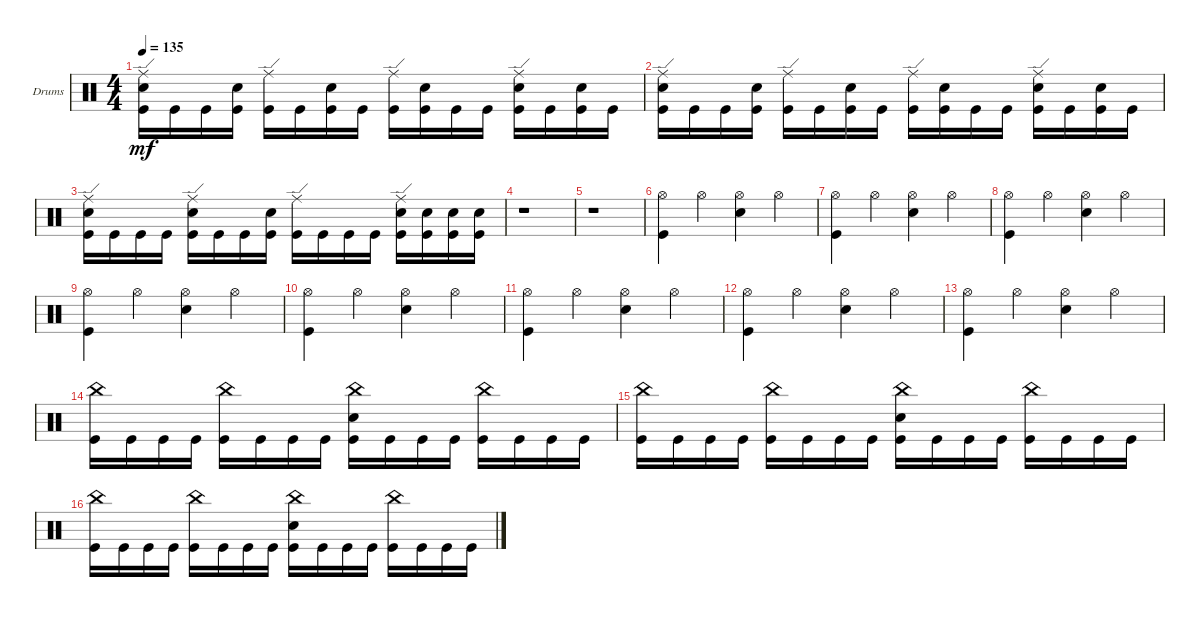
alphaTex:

\defaultSystemsLayout 4
\bracketExtendMode groupsimilarinstruments
\firstSystemTrackNameOrientation horizontal
\otherSystemsTrackNameOrientation horizontal
\track ("Rolo" "Drums") {instrument percussion}
\staff {score}
\articulation defaults
\ts (4 4)
\tempo 135
\clef neutral
\ks c
("Kick (hit)" "Snare (hit) 2" "Ride (edge)").16{dy mf} "Kick (hit)".16 "Kick (hit)".16 ("Kick (hit)" "Snare (hit) 2").16 ("Kick (hit)" "Ride (edge)").16 "Kick (hit)".16 ("Kick (hit)" "Snare (hit) 2").16 "Kick (hit)".16 ("Kick (hit)" "Ride (edge)").16 ("Kick (hit)" "Snare (hit) 2").16 "Kick (hit)".16 "Kick (hit)".16 ("Kick (hit)" "Snare (hit) 2" "Ride (edge)").16 "Kick (hit)".16 ("Kick (hit)" "Snare (hit) 2").16 "Kick (hit)".16 |
("Kick (hit)" "Snare (hit) 2" "Ride (edge)").16 "Kick (hit)".16 "Kick (hit)".16 ("Kick (hit)" "Snare (hit) 2").16 ("Kick (hit)" "Ride (edge)").16 "Kick (hit)".16 ("Kick (hit)" "Snare (hit) 2").16 "Kick (hit)".16 ("Kick (hit)" "Ride (edge)").16 ("Kick (hit)" "Snare (hit) 2").16 "Kick (hit)".16 "Kick (hit)".16 ("Kick (hit)" "Snare (hit) 2" "Ride (edge)").16 "Kick (hit)".16 ("Kick (hit)" "Snare (hit) 2").16 "Kick (hit)".16 |
("Kick (hit)" "Ride (edge)" "Snare (hit) 2").16 "Kick (hit)".16 "Kick (hit)".16 "Kick (hit)".16 ("Kick (hit)" "Ride (edge)" "Snare (hit) 2").16 "Kick (hit)".16 "Kick (hit)".16 ("Kick (hit)" "Snare (hit) 2").16 ("Kick (hit)" "Ride (edge)").16 "Kick (hit)".16 "Kick (hit)".16 "Kick (hit)".16 ("Kick (hit)" "Ride (edge)" "Snare (hit) 2").16 ("Kick (hit)" "Snare (hit) 2").16 ("Kick (hit)" "Snare (hit) 2").16 ("Kick (hit)" "Snare (hit) 2").16 |
r.1 |
r.1 |
("Kick (hit)" "Hi-Hat (open)").4 "Hi-Hat (open)".4 ("Hi-Hat (open)" "Snare (hit) 2").4 "Hi-Hat (open)".4 |
("Kick (hit)" "Hi-Hat (open)").4 "Hi-Hat (open)".4 ("Hi-Hat (open)" "Snare (hit) 2").4 "Hi-Hat (open)".4 |
("Kick (hit)" "Hi-Hat (open)").4 "Hi-Hat (open)".4 ("Hi-Hat (open)" "Snare (hit) 2").4 "Hi-Hat (open)".4 |
("Kick (hit)" "Hi-Hat (open)").4 "Hi-Hat (open)".4 ("Hi-Hat (open)" "Snare (hit) 2").4 "Hi-Hat (open)".4 |
("Kick (hit)" "Hi-Hat (open)").4 "Hi-Hat (open)".4 ("Hi-Hat (open)" "Snare (hit) 2").4 "Hi-Hat (open)".4 |
("Kick (hit)" "Hi-Hat (open)").4 "Hi-Hat (open)".4 ("Hi-Hat (open)" "Snare (hit) 2").4 "Hi-Hat (open)".4 |
("Kick (hit)" "Hi-Hat (open)").4 "Hi-Hat (open)".4 ("Hi-Hat (open)" "Snare (hit) 2").4 "Hi-Hat (open)".4 |
("Kick (hit)" "Hi-Hat (open)").4 "Hi-Hat (open)".4 ("Hi-Hat (open)" "Snare (hit) 2").4 "Hi-Hat (open)".4 |
("Kick (hit)" "China (hit)").16 "Kick (hit)".16 "Kick (hit)".16 "Kick (hit)".16 ("Kick (hit)" "China (hit)").16 "Kick (hit)".16 "Kick (hit)".16 "Kick (hit)".16 ("Kick (hit)" "Snare (hit) 2" "China (hit)").16 "Kick (hit)".16 "Kick (hit)".16 "Kick (hit)".16 ("Kick (hit)" "China (hit)").16 "Kick (hit)".16 "Kick (hit)".16 "Kick (hit)".16 |
("Kick (hit)" "China (hit)").16 "Kick (hit)".16 "Kick (hit)".16 "Kick (hit)".16 ("Kick (hit)" "China (hit)").16 "Kick (hit)".16 "Kick (hit)".16 "Kick (hit)".16 ("Kick (hit)" "Snare (hit) 2" "China (hit)").16 "Kick (hit)".16 "Kick (hit)".16 "Kick (hit)".16 ("Kick (hit)" "China (hit)").16 "Kick (hit)".16 "Kick (hit)".16 "Kick (hit)".16 |
("Kick (hit)" "China (hit)").16 "Kick (hit)".16 "Kick (hit)".16 "Kick (hit)".16 ("Kick (hit)" "China (hit)").16 "Kick (hit)".16 "Kick (hit)".16 "Kick (hit)".16 ("Kick (hit)" "Snare (hit) 2" "China (hit)").16 "Kick (hit)".16 "Kick (hit)".16 "Kick (hit)".16 ("Kick (hit)" "China (hit)").16 "Kick (hit)".16 "Kick (hit)".16 "Kick (hit)".16
